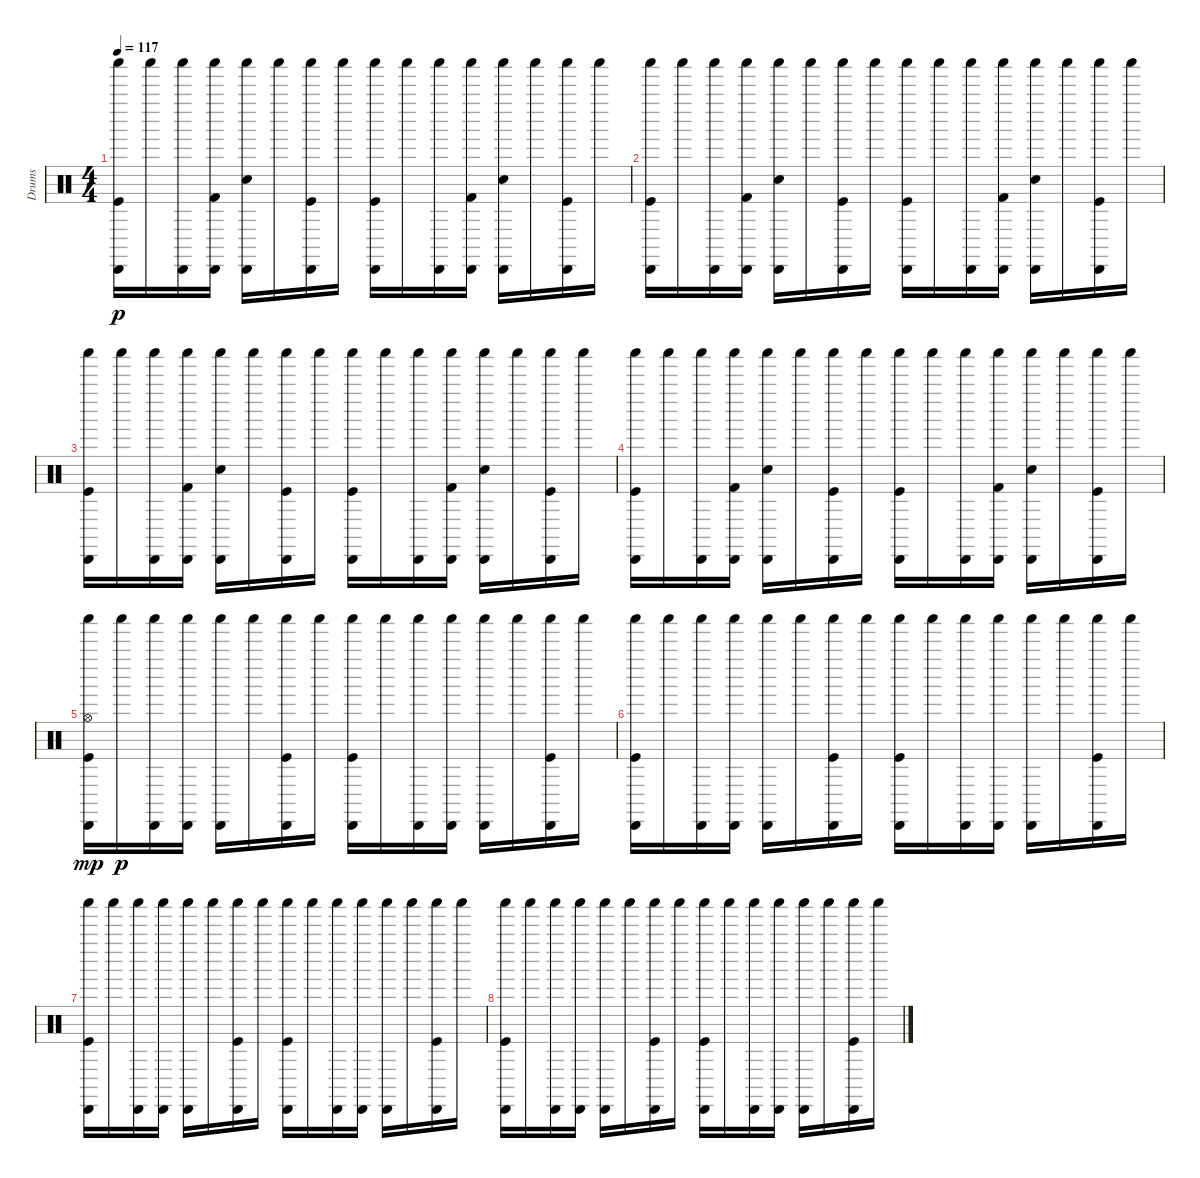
\track ("Drums" "Drums") {instrument percussion}
\staff {score}
\articulation defaults
\ts (4 4)
\tempo 117
\clef neutral
\ks c
("Kick (hit)" "Shaker (hit)" "Cabasa (hit)").16{dy p} "Shaker (hit)".16 ("Shaker (hit)" "Cabasa (hit)").16 ("Kick (hit) 2" "Shaker (hit)" "Cabasa (hit)").16 ("Snare (hit) 2" "Shaker (hit)" "Cabasa (hit)").16 "Shaker (hit)".16 ("Kick (hit)" "Shaker (hit)" "Cabasa (hit)").16 "Shaker (hit)".16 ("Kick (hit)" "Shaker (hit)" "Cabasa (hit)").16 "Shaker (hit)".16 ("Shaker (hit)" "Cabasa (hit)").16 ("Kick (hit) 2" "Shaker (hit)" "Cabasa (hit)").16 ("Snare (hit) 2" "Shaker (hit)" "Cabasa (hit)").16 "Shaker (hit)".16 ("Kick (hit)" "Shaker (hit)" "Cabasa (hit)").16 "Shaker (hit)".16 |
("Kick (hit)" "Shaker (hit)" "Cabasa (hit)").16 "Shaker (hit)".16 ("Shaker (hit)" "Cabasa (hit)").16 ("Kick (hit) 2" "Shaker (hit)" "Cabasa (hit)").16 ("Snare (hit) 2" "Shaker (hit)" "Cabasa (hit)").16 "Shaker (hit)".16 ("Kick (hit)" "Shaker (hit)" "Cabasa (hit)").16 "Shaker (hit)".16 ("Kick (hit)" "Shaker (hit)" "Cabasa (hit)").16 "Shaker (hit)".16 ("Shaker (hit)" "Cabasa (hit)").16 ("Kick (hit) 2" "Shaker (hit)" "Cabasa (hit)").16 ("Snare (hit) 2" "Shaker (hit)" "Cabasa (hit)").16 "Shaker (hit)".16 ("Kick (hit)" "Shaker (hit)" "Cabasa (hit)").16 "Shaker (hit)".16 |
("Kick (hit)" "Shaker (hit)" "Cabasa (hit)").16 "Shaker (hit)".16 ("Shaker (hit)" "Cabasa (hit)").16 ("Kick (hit) 2" "Shaker (hit)" "Cabasa (hit)").16 ("Snare (hit) 2" "Shaker (hit)" "Cabasa (hit)").16 "Shaker (hit)".16 ("Kick (hit)" "Shaker (hit)" "Cabasa (hit)").16 "Shaker (hit)".16 ("Kick (hit)" "Shaker (hit)" "Cabasa (hit)").16 "Shaker (hit)".16 ("Shaker (hit)" "Cabasa (hit)").16 ("Kick (hit) 2" "Shaker (hit)" "Cabasa (hit)").16 ("Snare (hit) 2" "Shaker (hit)" "Cabasa (hit)").16 "Shaker (hit)".16 ("Kick (hit)" "Shaker (hit)" "Cabasa (hit)").16 "Shaker (hit)".16 |
("Kick (hit)" "Shaker (hit)" "Cabasa (hit)").16 "Shaker (hit)".16 ("Shaker (hit)" "Cabasa (hit)").16 ("Kick (hit) 2" "Shaker (hit)" "Cabasa (hit)").16 ("Snare (hit) 2" "Shaker (hit)" "Cabasa (hit)").16 "Shaker (hit)".16 ("Kick (hit)" "Shaker (hit)" "Cabasa (hit)").16 "Shaker (hit)".16 ("Kick (hit)" "Shaker (hit)" "Cabasa (hit)").16 "Shaker (hit)".16 ("Shaker (hit)" "Cabasa (hit)").16 ("Kick (hit) 2" "Shaker (hit)" "Cabasa (hit)").16 ("Snare (hit) 2" "Shaker (hit)" "Cabasa (hit)").16 "Shaker (hit)".16 ("Kick (hit)" "Shaker (hit)" "Cabasa (hit)").16 "Shaker (hit)".16 |
("Kick (hit)" "Shaker (hit)" "Cabasa (hit)" "Hi-Hat (open)").16{dy mp volume 16} "Shaker (hit)".16{dy p} ("Shaker (hit)" "Cabasa (hit)").16{volume 16} ("Shaker (hit)" "Cabasa (hit)").16 ("Shaker (hit)" "Cabasa (hit)").16{volume 16} "Shaker (hit)".16 ("Kick (hit)" "Shaker (hit)" "Cabasa (hit)").16{volume 16} "Shaker (hit)".16 ("Kick (hit)" "Shaker (hit)" "Cabasa (hit)").16{volume 16} "Shaker (hit)".16 ("Shaker (hit)" "Cabasa (hit)").16{volume 15} ("Shaker (hit)" "Cabasa (hit)").16 ("Shaker (hit)" "Cabasa (hit)").16{volume 15} "Shaker (hit)".16 ("Kick (hit)" "Shaker (hit)" "Cabasa (hit)").16{volume 15} "Shaker (hit)".16 |
("Kick (hit)" "Shaker (hit)" "Cabasa (hit)").16{volume 15} "Shaker (hit)".16 ("Shaker (hit)" "Cabasa (hit)").16{volume 15} ("Shaker (hit)" "Cabasa (hit)").16 ("Shaker (hit)" "Cabasa (hit)").16{volume 15} "Shaker (hit)".16 ("Kick (hit)" "Shaker (hit)" "Cabasa (hit)").16{volume 15} "Shaker (hit)".16 ("Kick (hit)" "Shaker (hit)" "Cabasa (hit)").16{volume 14} "Shaker (hit)".16 ("Shaker (hit)" "Cabasa (hit)").16{volume 14} ("Shaker (hit)" "Cabasa (hit)").16 ("Shaker (hit)" "Cabasa (hit)").16{volume 14} "Shaker (hit)".16 ("Kick (hit)" "Shaker (hit)" "Cabasa (hit)").16{volume 14} "Shaker (hit)".16 |
("Kick (hit)" "Shaker (hit)" "Cabasa (hit)").16{volume 14} "Shaker (hit)".16 ("Shaker (hit)" "Cabasa (hit)").16{volume 14} ("Shaker (hit)" "Cabasa (hit)").16 ("Shaker (hit)" "Cabasa (hit)").16{volume 14} "Shaker (hit)".16 ("Kick (hit)" "Shaker (hit)" "Cabasa (hit)").16{volume 14} "Shaker (hit)".16 ("Kick (hit)" "Shaker (hit)" "Cabasa (hit)").16{volume 14} "Shaker (hit)".16 ("Shaker (hit)" "Cabasa (hit)").16{volume 13} ("Shaker (hit)" "Cabasa (hit)").16 ("Shaker (hit)" "Cabasa (hit)").16{volume 13} "Shaker (hit)".16 ("Kick (hit)" "Shaker (hit)" "Cabasa (hit)").16{volume 13} "Shaker (hit)".16 |
("Kick (hit)" "Shaker (hit)" "Cabasa (hit)").16{volume 13} "Shaker (hit)".16 ("Shaker (hit)" "Cabasa (hit)").16{volume 13} ("Shaker (hit)" "Cabasa (hit)").16 ("Shaker (hit)" "Cabasa (hit)").16{volume 13} "Shaker (hit)".16 ("Kick (hit)" "Shaker (hit)" "Cabasa (hit)").16{volume 13} "Shaker (hit)".16 ("Kick (hit)" "Shaker (hit)" "Cabasa (hit)").16{volume 12} "Shaker (hit)".16 ("Shaker (hit)" "Cabasa (hit)").16{volume 12} ("Shaker (hit)" "Cabasa (hit)").16 ("Shaker (hit)" "Cabasa (hit)").16{volume 12} "Shaker (hit)".16 ("Kick (hit)" "Shaker (hit)" "Cabasa (hit)").16{volume 12} "Shaker (hit)".16
